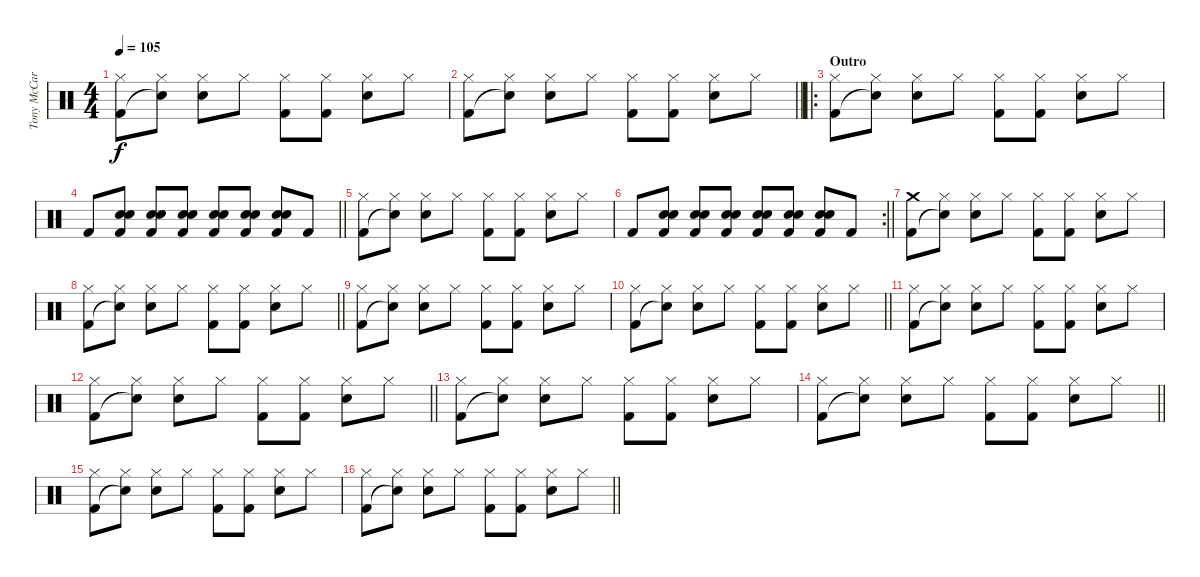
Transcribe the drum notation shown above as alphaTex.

\track ("Tony McCaroll" "Tony McCar") {instrument percussion}
\staff {score}
\articulation defaults
\ts (4 4)
\tempo 105
\clef neutral
\ks c
("Hi-Hat (closed)" "Kick (hit) 2").8{dy f} ("Hi-Hat (closed)" "Snare (hit)"{t}).8 ("Hi-Hat (closed)" "Snare (hit) 2").8 "Hi-Hat (closed)".8 ("Hi-Hat (closed)" "Kick (hit) 2").8 ("Hi-Hat (closed)" "Kick (hit) 2").8 ("Hi-Hat (closed)" "Snare (hit) 2").8 "Hi-Hat (closed)".8 |
\barLineRight lightlight
("Hi-Hat (closed)" "Kick (hit) 2").8 ("Hi-Hat (closed)" "Snare (hit)"{t}).8 ("Hi-Hat (closed)" "Snare (hit) 2").8 "Hi-Hat (closed)".8 ("Hi-Hat (closed)" "Kick (hit) 2").8 ("Hi-Hat (closed)" "Kick (hit) 2").8 ("Hi-Hat (closed)" "Snare (hit) 2").8 "Hi-Hat (closed)".8 |
\ro
\section ("" "Outro")
("Hi-Hat (closed)" "Kick (hit) 2").8 ("Hi-Hat (closed)" "Snare (hit)"{t}).8 ("Hi-Hat (closed)" "Snare (hit) 2").8 "Hi-Hat (closed)".8 ("Hi-Hat (closed)" "Kick (hit) 2").8 ("Hi-Hat (closed)" "Kick (hit) 2").8 ("Hi-Hat (closed)" "Snare (hit) 2").8 "Hi-Hat (closed)".8 |
\barLineRight lightlight "Kick (hit) 2".8
("Snare (hit) 2" "Snare (hit) 2" "Kick (hit) 2").8 ("Snare (hit) 2" "Snare (hit) 2" "Kick (hit) 2").8 ("Snare (hit) 2" "Snare (hit) 2" "Kick (hit) 2").8 ("Snare (hit) 2" "Snare (hit) 2" "Kick (hit) 2").8 ("Snare (hit) 2" "Snare (hit) 2" "Kick (hit) 2").8 ("Snare (hit) 2" "Snare (hit) 2" "Kick (hit) 2").8 "Kick (hit) 2".8 |
("Hi-Hat (closed)" "Kick (hit) 2").8 ("Hi-Hat (closed)" "Snare (hit)"{t}).8 ("Hi-Hat (closed)" "Snare (hit) 2").8 "Hi-Hat (closed)".8 ("Hi-Hat (closed)" "Kick (hit) 2").8 ("Hi-Hat (closed)" "Kick (hit) 2").8 ("Hi-Hat (closed)" "Snare (hit) 2").8 "Hi-Hat (closed)".8 |
\rc 2
\barLineRight lightlight "Kick (hit) 2".8
("Snare (hit) 2" "Snare (hit) 2" "Kick (hit) 2").8 ("Snare (hit) 2" "Snare (hit) 2" "Kick (hit) 2").8 ("Snare (hit) 2" "Snare (hit) 2" "Kick (hit) 2").8 ("Snare (hit) 2" "Snare (hit) 2" "Kick (hit) 2").8 ("Snare (hit) 2" "Snare (hit) 2" "Kick (hit) 2").8 ("Snare (hit) 2" "Snare (hit) 2" "Kick (hit) 2").8 "Kick (hit) 2".8 |
("Crash medium (hit)" "Kick (hit) 2").8 ("Hi-Hat (closed)" "Snare (hit)"{t}).8 ("Hi-Hat (closed)" "Snare (hit) 2").8 "Hi-Hat (closed)".8 ("Hi-Hat (closed)" "Kick (hit) 2").8 ("Hi-Hat (closed)" "Kick (hit) 2").8 ("Hi-Hat (closed)" "Snare (hit) 2").8 "Hi-Hat (closed)".8 |
\barLineRight lightlight
("Hi-Hat (closed)" "Kick (hit) 2").8 ("Hi-Hat (closed)" "Snare (hit)"{t}).8 ("Hi-Hat (closed)" "Snare (hit) 2").8 "Hi-Hat (closed)".8 ("Hi-Hat (closed)" "Kick (hit) 2").8 ("Hi-Hat (closed)" "Kick (hit) 2").8 ("Hi-Hat (closed)" "Snare (hit) 2").8 "Hi-Hat (closed)".8 |
("Hi-Hat (closed)" "Kick (hit) 2").8 ("Hi-Hat (closed)" "Snare (hit)"{t}).8 ("Hi-Hat (closed)" "Snare (hit) 2").8 "Hi-Hat (closed)".8 ("Hi-Hat (closed)" "Kick (hit) 2").8 ("Hi-Hat (closed)" "Kick (hit) 2").8 ("Hi-Hat (closed)" "Snare (hit) 2").8 "Hi-Hat (closed)".8 |
\barLineRight lightlight
("Hi-Hat (closed)" "Kick (hit) 2").8 ("Hi-Hat (closed)" "Snare (hit)"{t}).8 ("Hi-Hat (closed)" "Snare (hit) 2").8 "Hi-Hat (closed)".8 ("Hi-Hat (closed)" "Kick (hit) 2").8 ("Hi-Hat (closed)" "Kick (hit) 2").8 ("Hi-Hat (closed)" "Snare (hit) 2").8 "Hi-Hat (closed)".8 |
("Hi-Hat (closed)" "Kick (hit) 2").8 ("Hi-Hat (closed)" "Snare (hit)"{t}).8 ("Hi-Hat (closed)" "Snare (hit) 2").8 "Hi-Hat (closed)".8 ("Hi-Hat (closed)" "Kick (hit) 2").8 ("Hi-Hat (closed)" "Kick (hit) 2").8 ("Hi-Hat (closed)" "Snare (hit) 2").8 "Hi-Hat (closed)".8 |
\barLineRight lightlight
("Hi-Hat (closed)" "Kick (hit) 2").8 ("Hi-Hat (closed)" "Snare (hit)"{t}).8 ("Hi-Hat (closed)" "Snare (hit) 2").8 "Hi-Hat (closed)".8 ("Hi-Hat (closed)" "Kick (hit) 2").8 ("Hi-Hat (closed)" "Kick (hit) 2").8 ("Hi-Hat (closed)" "Snare (hit) 2").8 "Hi-Hat (closed)".8 |
("Hi-Hat (closed)" "Kick (hit) 2").8 ("Hi-Hat (closed)" "Snare (hit)"{t}).8 ("Hi-Hat (closed)" "Snare (hit) 2").8 "Hi-Hat (closed)".8 ("Hi-Hat (closed)" "Kick (hit) 2").8 ("Hi-Hat (closed)" "Kick (hit) 2").8 ("Hi-Hat (closed)" "Snare (hit) 2").8 "Hi-Hat (closed)".8 |
\barLineRight lightlight
("Hi-Hat (closed)" "Kick (hit) 2").8 ("Hi-Hat (closed)" "Snare (hit)"{t}).8 ("Hi-Hat (closed)" "Snare (hit) 2").8 "Hi-Hat (closed)".8 ("Hi-Hat (closed)" "Kick (hit) 2").8 ("Hi-Hat (closed)" "Kick (hit) 2").8 ("Hi-Hat (closed)" "Snare (hit) 2").8 "Hi-Hat (closed)".8 |
("Hi-Hat (closed)" "Kick (hit) 2").8 ("Hi-Hat (closed)" "Snare (hit)"{t}).8 ("Hi-Hat (closed)" "Snare (hit) 2").8 "Hi-Hat (closed)".8 ("Hi-Hat (closed)" "Kick (hit) 2").8 ("Hi-Hat (closed)" "Kick (hit) 2").8 ("Hi-Hat (closed)" "Snare (hit) 2").8 "Hi-Hat (closed)".8 |
\barLineRight lightlight
("Hi-Hat (closed)" "Kick (hit) 2").8 ("Hi-Hat (closed)" "Snare (hit)"{t}).8 ("Hi-Hat (closed)" "Snare (hit) 2").8 "Hi-Hat (closed)".8 ("Hi-Hat (closed)" "Kick (hit) 2").8 ("Hi-Hat (closed)" "Kick (hit) 2").8 ("Hi-Hat (closed)" "Snare (hit) 2").8 "Hi-Hat (closed)".8
